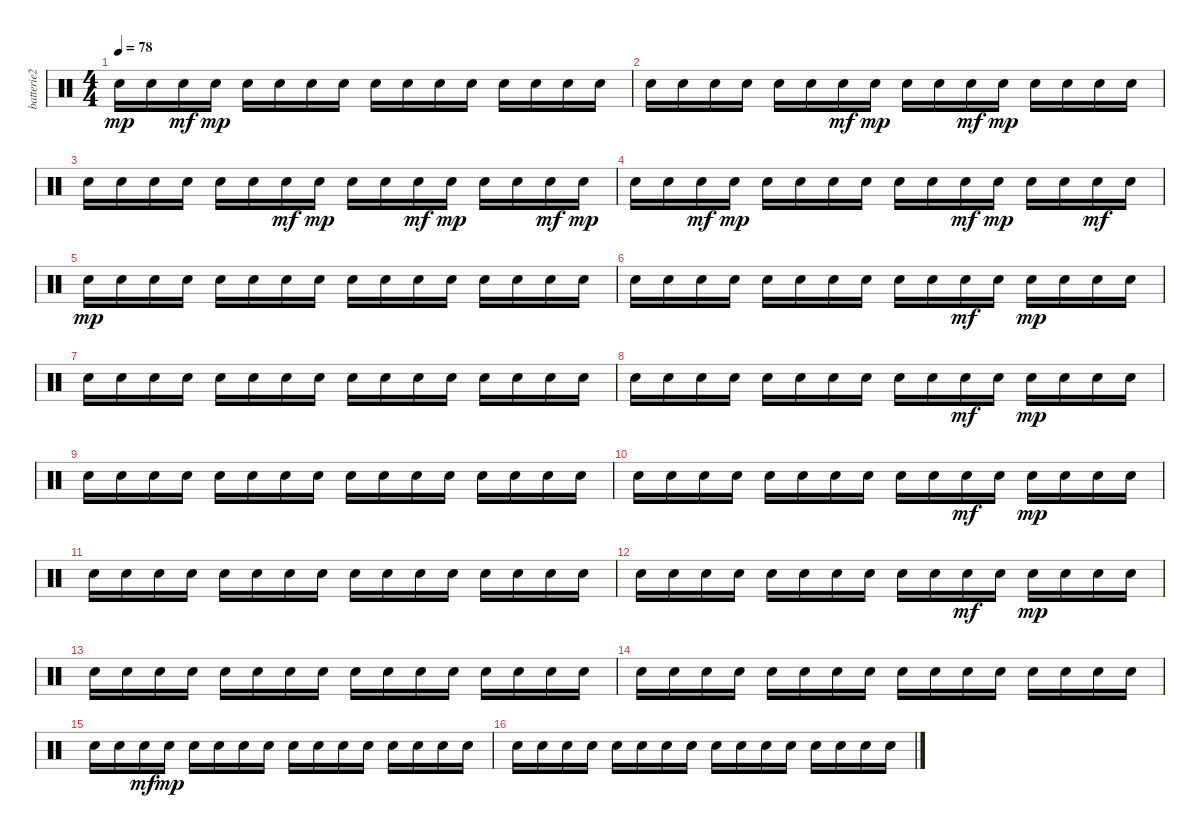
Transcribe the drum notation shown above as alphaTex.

\track ("batterie2" "batterie2") {instrument percussion}
\staff {score}
\articulation defaults
\ts (4 4)
\tempo 78
\clef neutral
\ks c "Snare (hit) 2".16{dy mp} "Snare (hit) 2".16 "Snare (hit) 2".16{dy mf} "Snare (hit) 2".16{dy mp} "Snare (hit) 2".16 "Snare (hit) 2".16 "Snare (hit) 2".16 "Snare (hit) 2".16 "Snare (hit) 2".16 "Snare (hit) 2".16 "Snare (hit) 2".16 "Snare (hit) 2".16 "Snare (hit) 2".16 "Snare (hit) 2".16 "Snare (hit) 2".16 "Snare (hit) 2".16
|
"Snare (hit) 2".16 "Snare (hit) 2".16 "Snare (hit) 2".16 "Snare (hit) 2".16 "Snare (hit) 2".16 "Snare (hit) 2".16 "Snare (hit) 2".16{dy mf} "Snare (hit) 2".16{dy mp} "Snare (hit) 2".16 "Snare (hit) 2".16 "Snare (hit) 2".16{dy mf} "Snare (hit) 2".16{dy mp} "Snare (hit) 2".16 "Snare (hit) 2".16 "Snare (hit) 2".16 "Snare (hit) 2".16 |
"Snare (hit) 2".16 "Snare (hit) 2".16 "Snare (hit) 2".16 "Snare (hit) 2".16 "Snare (hit) 2".16 "Snare (hit) 2".16 "Snare (hit) 2".16{dy mf} "Snare (hit) 2".16{dy mp} "Snare (hit) 2".16 "Snare (hit) 2".16 "Snare (hit) 2".16{dy mf} "Snare (hit) 2".16{dy mp} "Snare (hit) 2".16 "Snare (hit) 2".16 "Snare (hit) 2".16{dy mf} "Snare (hit) 2".16{dy mp} |
"Snare (hit) 2".16 "Snare (hit) 2".16 "Snare (hit) 2".16{dy mf} "Snare (hit) 2".16{dy mp} "Snare (hit) 2".16 "Snare (hit) 2".16 "Snare (hit) 2".16 "Snare (hit) 2".16 "Snare (hit) 2".16 "Snare (hit) 2".16 "Snare (hit) 2".16{dy mf} "Snare (hit) 2".16{dy mp} "Snare (hit) 2".16 "Snare (hit) 2".16 "Snare (hit) 2".16{dy mf} "Snare (hit) 2".16 |
"Snare (hit) 2".16{dy mp} "Snare (hit) 2".16 "Snare (hit) 2".16 "Snare (hit) 2".16 "Snare (hit) 2".16 "Snare (hit) 2".16 "Snare (hit) 2".16 "Snare (hit) 2".16 "Snare (hit) 2".16 "Snare (hit) 2".16 "Snare (hit) 2".16 "Snare (hit) 2".16 "Snare (hit) 2".16 "Snare (hit) 2".16 "Snare (hit) 2".16 "Snare (hit) 2".16 |
"Snare (hit) 2".16 "Snare (hit) 2".16 "Snare (hit) 2".16 "Snare (hit) 2".16 "Snare (hit) 2".16 "Snare (hit) 2".16 "Snare (hit) 2".16 "Snare (hit) 2".16 "Snare (hit) 2".16 "Snare (hit) 2".16 "Snare (hit) 2".16{dy mf} "Snare (hit) 2".16 "Snare (hit) 2".16{dy mp} "Snare (hit) 2".16 "Snare (hit) 2".16 "Snare (hit) 2".16 |
"Snare (hit) 2".16 "Snare (hit) 2".16 "Snare (hit) 2".16 "Snare (hit) 2".16 "Snare (hit) 2".16 "Snare (hit) 2".16 "Snare (hit) 2".16 "Snare (hit) 2".16 "Snare (hit) 2".16 "Snare (hit) 2".16 "Snare (hit) 2".16 "Snare (hit) 2".16 "Snare (hit) 2".16 "Snare (hit) 2".16 "Snare (hit) 2".16 "Snare (hit) 2".16 |
"Snare (hit) 2".16 "Snare (hit) 2".16 "Snare (hit) 2".16 "Snare (hit) 2".16 "Snare (hit) 2".16 "Snare (hit) 2".16 "Snare (hit) 2".16 "Snare (hit) 2".16 "Snare (hit) 2".16 "Snare (hit) 2".16 "Snare (hit) 2".16{dy mf} "Snare (hit) 2".16 "Snare (hit) 2".16{dy mp} "Snare (hit) 2".16 "Snare (hit) 2".16 "Snare (hit) 2".16 |
"Snare (hit) 2".16 "Snare (hit) 2".16 "Snare (hit) 2".16 "Snare (hit) 2".16 "Snare (hit) 2".16 "Snare (hit) 2".16 "Snare (hit) 2".16 "Snare (hit) 2".16 "Snare (hit) 2".16 "Snare (hit) 2".16 "Snare (hit) 2".16 "Snare (hit) 2".16 "Snare (hit) 2".16 "Snare (hit) 2".16 "Snare (hit) 2".16 "Snare (hit) 2".16 |
"Snare (hit) 2".16 "Snare (hit) 2".16 "Snare (hit) 2".16 "Snare (hit) 2".16 "Snare (hit) 2".16 "Snare (hit) 2".16 "Snare (hit) 2".16 "Snare (hit) 2".16 "Snare (hit) 2".16 "Snare (hit) 2".16 "Snare (hit) 2".16{dy mf} "Snare (hit) 2".16 "Snare (hit) 2".16{dy mp} "Snare (hit) 2".16 "Snare (hit) 2".16 "Snare (hit) 2".16 |
"Snare (hit) 2".16 "Snare (hit) 2".16 "Snare (hit) 2".16 "Snare (hit) 2".16 "Snare (hit) 2".16 "Snare (hit) 2".16 "Snare (hit) 2".16 "Snare (hit) 2".16 "Snare (hit) 2".16 "Snare (hit) 2".16 "Snare (hit) 2".16 "Snare (hit) 2".16 "Snare (hit) 2".16 "Snare (hit) 2".16 "Snare (hit) 2".16 "Snare (hit) 2".16 |
"Snare (hit) 2".16 "Snare (hit) 2".16 "Snare (hit) 2".16 "Snare (hit) 2".16 "Snare (hit) 2".16 "Snare (hit) 2".16 "Snare (hit) 2".16 "Snare (hit) 2".16 "Snare (hit) 2".16 "Snare (hit) 2".16 "Snare (hit) 2".16{dy mf} "Snare (hit) 2".16 "Snare (hit) 2".16{dy mp} "Snare (hit) 2".16 "Snare (hit) 2".16 "Snare (hit) 2".16 |
"Snare (hit) 2".16 "Snare (hit) 2".16 "Snare (hit) 2".16 "Snare (hit) 2".16 "Snare (hit) 2".16 "Snare (hit) 2".16 "Snare (hit) 2".16 "Snare (hit) 2".16 "Snare (hit) 2".16 "Snare (hit) 2".16 "Snare (hit) 2".16 "Snare (hit) 2".16 "Snare (hit) 2".16 "Snare (hit) 2".16 "Snare (hit) 2".16 "Snare (hit) 2".16 |
"Snare (hit) 2".16 "Snare (hit) 2".16 "Snare (hit) 2".16 "Snare (hit) 2".16 "Snare (hit) 2".16 "Snare (hit) 2".16 "Snare (hit) 2".16 "Snare (hit) 2".16 "Snare (hit) 2".16 "Snare (hit) 2".16 "Snare (hit) 2".16 "Snare (hit) 2".16 "Snare (hit) 2".16 "Snare (hit) 2".16 "Snare (hit) 2".16 "Snare (hit) 2".16 |
"Snare (hit) 2".16 "Snare (hit) 2".16 "Snare (hit) 2".16{dy mf} "Snare (hit) 2".16{dy mp} "Snare (hit) 2".16 "Snare (hit) 2".16 "Snare (hit) 2".16 "Snare (hit) 2".16 "Snare (hit) 2".16 "Snare (hit) 2".16 "Snare (hit) 2".16 "Snare (hit) 2".16 "Snare (hit) 2".16 "Snare (hit) 2".16 "Snare (hit) 2".16 "Snare (hit) 2".16 |
"Snare (hit) 2".16 "Snare (hit) 2".16 "Snare (hit) 2".16 "Snare (hit) 2".16 "Snare (hit) 2".16 "Snare (hit) 2".16 "Snare (hit) 2".16 "Snare (hit) 2".16 "Snare (hit) 2".16 "Snare (hit) 2".16 "Snare (hit) 2".16 "Snare (hit) 2".16 "Snare (hit) 2".16 "Snare (hit) 2".16 "Snare (hit) 2".16 "Snare (hit) 2".16
